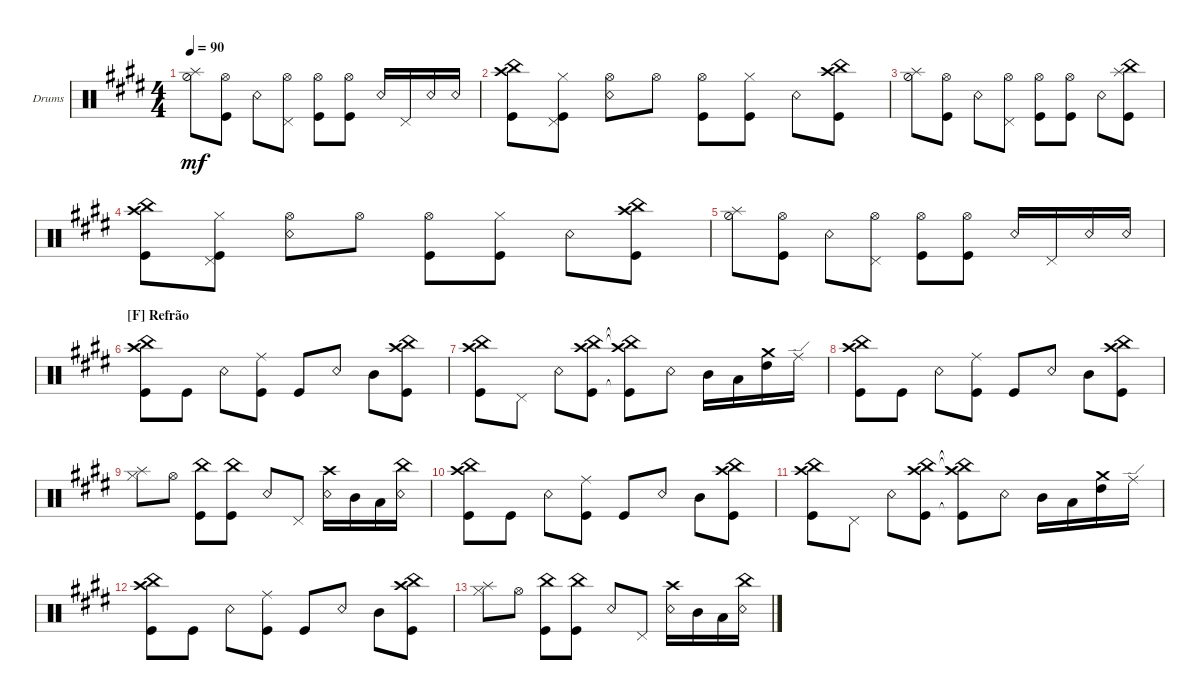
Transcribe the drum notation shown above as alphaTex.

\defaultSystemsLayout 4
\bracketExtendMode groupsimilarinstruments
\firstSystemTrackNameOrientation horizontal
\otherSystemsTrackNameOrientation horizontal
\track ("Drum" "Drums") {multiBarRest instrument percussion}
\staff {score}
\articulation defaults
\ts (4 4)
\tempo 90
\clef neutral
\ks e
("Hi-Hat (half)" "Splash (hit)").8{dy mf} ("Kick (hit)" "Hi-Hat (open)").8 "Snare (rim shot)".8 ("Pedal Hi-Hat (hit)" "Hi-Hat (open)").8 ("Kick (hit)" "Hi-Hat (open)").8 ("Kick (hit)" "Hi-Hat (open)").8 "Snare (rim shot)".16 "Pedal Hi-Hat (hit)".16 "Snare (rim shot)".16 "Snare (rim shot)".16 |
("Kick (hit)" "China (hit)" "Crash high (hit)").8 ("Kick (hit)" "Pedal Hi-Hat (hit)" "Hi-Hat (closed)").8 ("Snare (rim shot)" "Hi-Hat (open)").8 "Hi-Hat (open)".8 ("Kick (hit)" "Hi-Hat (open)").8 ("Kick (hit)" "Hi-Hat (closed)").8 "Snare (rim shot)".8 ("Crash high (hit)" "Kick (hit)" "China (hit)").8 |
("Hi-Hat (half)" "Splash (hit)").8 ("Kick (hit)" "Hi-Hat (open)").8 "Snare (rim shot)".8 ("Pedal Hi-Hat (hit)" "Hi-Hat (open)").8 ("Kick (hit)" "Hi-Hat (open)").8 ("Kick (hit)" "Hi-Hat (open)").8 "Snare (rim shot)".8 ("China (hit)" "Kick (hit)" "Splash (hit)").8 |
("Kick (hit)" "China (hit)" "Crash high (hit)").8 ("Kick (hit)" "Pedal Hi-Hat (hit)" "Hi-Hat (closed)").8 ("Snare (rim shot)" "Hi-Hat (open)").8 "Hi-Hat (open)".8 ("Kick (hit)" "Hi-Hat (open)").8 ("Kick (hit)" "Hi-Hat (closed)").8 "Snare (rim shot)".8 ("Crash high (hit)" "Kick (hit)" "China (hit)").8 |
("Hi-Hat (half)" "Splash (hit)").8 ("Kick (hit)" "Hi-Hat (open)").8 "Snare (rim shot)".8 ("Pedal Hi-Hat (hit)" "Hi-Hat (open)").8 ("Kick (hit)" "Hi-Hat (open)").8 ("Kick (hit)" "Hi-Hat (open)").8 "Snare (rim shot)".16 "Pedal Hi-Hat (hit)".16 "Snare (rim shot)".16 "Snare (rim shot)".16 |
\section ("F" "Refrão")
("Kick (hit)" "Crash high (hit)" "China (hit)").8 "Kick (hit)".8 "Snare (rim shot)".8 ("Kick (hit)" "Ride (middle)").8 "Kick (hit)".8 "Snare (rim shot)".8 "Mid Tom (hit)".8 ("Crash high (hit)" "China (hit)" "Kick (hit)").8 |
("Kick (hit)" "Crash high (hit)" "China (hit)").8 "Pedal Hi-Hat (hit)".8 "Snare (rim shot)".8 ("Kick (hit)" "Crash high (hit)" "China (hit)").8 ("Kick (hit)"{t} "Crash high (hit)"{t} "China (hit)"{t}).8 "Snare (rim shot)".8 "Mid Tom (hit)".16 "Low Tom (hit)".16 ("High Tom (hit)" "Crash medium (hit)").16 "Ride (edge)".16 |
("Kick (hit)" "Crash high (hit)" "China (hit)").8 "Kick (hit)".8 "Snare (rim shot)".8 ("Kick (hit)" "Ride (middle)").8 "Kick (hit)".8 "Snare (rim shot)".8 "Mid Tom (hit)".8 ("Crash high (hit)" "China (hit)" "Kick (hit)").8 |
("Hi-Hat (closed)" "Splash (hit)").8 "Hi-Hat (open)".8 ("Kick (hit)" "China (hit)").8 ("Kick (hit)" "China (hit)").8 "Snare (rim shot)".8 "Pedal Hi-Hat (hit)".8 ("Snare (rim shot)" "Crash high (hit)").16 "Mid Tom (hit)".16 "Low Tom (hit)".16 ("Snare (rim shot)" "China (hit)").16 |
("Kick (hit)" "Crash high (hit)" "China (hit)").8 "Kick (hit)".8 "Snare (rim shot)".8 ("Kick (hit)" "Ride (middle)").8 "Kick (hit)".8 "Snare (rim shot)".8 "Mid Tom (hit)".8 ("Crash high (hit)" "China (hit)" "Kick (hit)").8 |
("Kick (hit)" "Crash high (hit)" "China (hit)").8 "Pedal Hi-Hat (hit)".8 "Snare (rim shot)".8 ("Kick (hit)" "Crash high (hit)" "China (hit)").8 ("Kick (hit)"{t} "Crash high (hit)"{t} "China (hit)"{t}).8 "Snare (rim shot)".8 "Mid Tom (hit)".16 "Low Tom (hit)".16 ("High Tom (hit)" "Crash medium (hit)").16 "Ride (edge)".16 |
("Kick (hit)" "Crash high (hit)" "China (hit)").8 "Kick (hit)".8 "Snare (rim shot)".8 ("Kick (hit)" "Ride (middle)").8 "Kick (hit)".8 "Snare (rim shot)".8 "Mid Tom (hit)".8 ("Crash high (hit)" "China (hit)" "Kick (hit)").8 |
("Hi-Hat (closed)" "Splash (hit)").8 "Hi-Hat (open)".8 ("Kick (hit)" "China (hit)").8 ("Kick (hit)" "China (hit)").8 "Snare (rim shot)".8 "Pedal Hi-Hat (hit)".8 ("Snare (rim shot)" "Crash high (hit)").16 "Mid Tom (hit)".16 "Low Tom (hit)".16 ("Snare (rim shot)" "China (hit)").16
